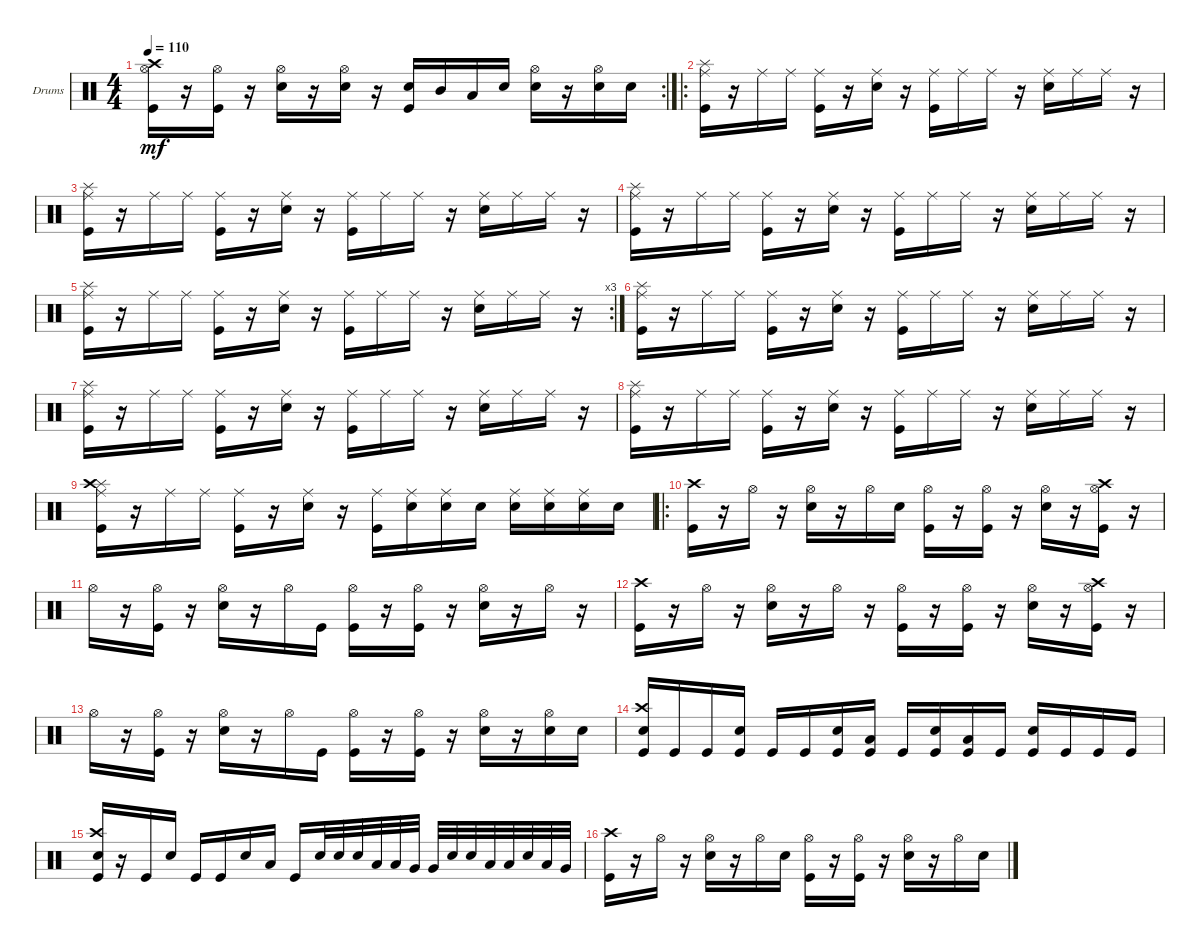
\defaultSystemsLayout 4
\bracketExtendMode groupsimilarinstruments
\firstSystemTrackNameOrientation horizontal
\otherSystemsTrackNameOrientation horizontal
\track ("Drumkit" "Drums") {instrument percussion}
\staff {score}
\articulation defaults
\rc 2
\ts (4 4)
\tempo 110
\clef neutral
\scale
0.356322
\ks c
("Hi-Hat (open)" "Kick (hit)" "Crash high (hit)").16{dy mf} r.16 ("Hi-Hat (open)" "Kick (hit)").16 r.16 ("Snare (hit) 2" "Hi-Hat (open)").16 r.16 ("Hi-Hat (open)" "Snare (hit) 2").16 r.16 ("Snare (hit) 2" "Kick (hit)").16 "Mid Tom (hit)".16 "Low Tom (hit)".16 "Snare (hit) 2".16 ("Hi-Hat (open)" "Snare (hit) 2").16 r.16 ("Hi-Hat (open)" "Snare (hit) 2").16 "Snare (hit) 2".16 |
\ro
\scale
0.377778 ("Kick (hit)" "Ride (middle)" "Splash (hit)").16 r.16 "Ride (middle)".16 "Ride (middle)".16 ("Ride (middle)" "Kick (hit)").16 r.16 ("Ride (middle)" "Snare (hit) 2").16 r.16 ("Ride (middle)" "Kick (hit)").16 "Ride (middle)".16 "Ride (middle)".16 r.16 ("Ride (middle)" "Snare (hit) 2").16 "Ride (middle)".16 "Ride (middle)".16 r.16 |
\scale
0.311111 ("Kick (hit)" "Ride (middle)" "Splash (hit)").16 r.16 "Ride (middle)".16 "Ride (middle)".16 ("Ride (middle)" "Kick (hit)").16 r.16 ("Ride (middle)" "Snare (hit) 2").16 r.16 ("Ride (middle)" "Kick (hit)").16 "Ride (middle)".16 "Ride (middle)".16 r.16 ("Ride (middle)" "Snare (hit) 2").16 "Ride (middle)".16 "Ride (middle)".16 r.16 |
\scale
0.311111 ("Kick (hit)" "Ride (middle)" "Splash (hit)").16 r.16 "Ride (middle)".16 "Ride (middle)".16 ("Ride (middle)" "Kick (hit)").16 r.16 ("Ride (middle)" "Snare (hit) 2").16 r.16 ("Ride (middle)" "Kick (hit)").16 "Ride (middle)".16 "Ride (middle)".16 r.16 ("Ride (middle)" "Snare (hit) 2").16 "Ride (middle)".16 "Ride (middle)".16 r.16 |
\rc 3
\scale
0.356322 ("Kick (hit)" "Ride (middle)" "Splash (hit)").16 r.16 "Ride (middle)".16 "Ride (middle)".16 ("Ride (middle)" "Kick (hit)").16 r.16 ("Ride (middle)" "Snare (hit) 2").16 r.16 ("Ride (middle)" "Kick (hit)").16 "Ride (middle)".16 "Ride (middle)".16 r.16 ("Ride (middle)" "Snare (hit) 2").16 "Ride (middle)".16 "Ride (middle)".16 r.16 |
\scale
0.321839 ("Kick (hit)" "Ride (middle)" "Splash (hit)").16 r.16 "Ride (middle)".16 "Ride (middle)".16 ("Ride (middle)" "Kick (hit)").16 r.16 ("Ride (middle)" "Snare (hit) 2").16 r.16 ("Ride (middle)" "Kick (hit)").16 "Ride (middle)".16 "Ride (middle)".16 r.16 ("Ride (middle)" "Snare (hit) 2").16 "Ride (middle)".16 "Ride (middle)".16 r.16 |
\scale
0.321839 ("Kick (hit)" "Ride (middle)" "Splash (hit)").16 r.16 "Ride (middle)".16 "Ride (middle)".16 ("Ride (middle)" "Kick (hit)").16 r.16 ("Ride (middle)" "Snare (hit) 2").16 r.16 ("Ride (middle)" "Kick (hit)").16 "Ride (middle)".16 "Ride (middle)".16 r.16 ("Ride (middle)" "Snare (hit) 2").16 "Ride (middle)".16 "Ride (middle)".16 r.16 |
\scale
0.311111 ("Kick (hit)" "Ride (middle)" "Splash (hit)").16 r.16 "Ride (middle)".16 "Ride (middle)".16 ("Ride (middle)" "Kick (hit)").16 r.16 ("Ride (middle)" "Snare (hit) 2").16 r.16 ("Ride (middle)" "Kick (hit)").16 "Ride (middle)".16 "Ride (middle)".16 r.16 ("Ride (middle)" "Snare (hit) 2").16 "Ride (middle)".16 "Ride (middle)".16 r.16 |
\scale
0.311111 ("Kick (hit)" "Ride (middle)" "Splash (hit)" "Crash high (hit)").16 r.16 "Ride (middle)".16 "Ride (middle)".16 ("Ride (middle)" "Kick (hit)").16 r.16 ("Ride (middle)" "Snare (hit) 2").16 r.16 ("Ride (middle)" "Kick (hit)").16 ("Ride (middle)" "Snare (hit) 2").16 ("Ride (middle)" "Snare (hit) 2").16 "Snare (hit) 2".16 ("Ride (middle)" "Snare (hit) 2").16 ("Ride (middle)" "Snare (hit) 2").16 ("Ride (middle)" "Snare (hit) 2").16 "Snare (hit) 2".16 |
\ro
\scale
0.377778 ("Kick (hit)" "Crash high (hit)").16 r.16 "Hi-Hat (open)".16 r.16 ("Hi-Hat (open)" "Snare (hit) 2").16 r.16 "Hi-Hat (open)".16 "Snare (hit) 2".16 ("Hi-Hat (open)" "Kick (hit)").16 r.16 ("Hi-Hat (open)" "Kick (hit)").16 r.16 ("Hi-Hat (open)" "Snare (hit) 2").16 r.16 ("Hi-Hat (open)" "Kick (hit)" "Crash high (hit)").16 r.16 |
\scale
0.333333 "Hi-Hat (open)".16 r.16 ("Hi-Hat (open)" "Kick (hit)").16 r.16 ("Snare (hit) 2" "Hi-Hat (open)").16 r.16 "Hi-Hat (open)".16 "Kick (hit)".16 ("Hi-Hat (open)" "Kick (hit)").16 r.16 ("Hi-Hat (open)" "Kick (hit)").16 r.16 ("Hi-Hat (open)" "Snare (hit) 2").16 r.16 "Hi-Hat (open)".16 r.16 |
\scale
0.333333 ("Kick (hit)" "Crash high (hit)").16 r.16 "Hi-Hat (open)".16 r.16 ("Hi-Hat (open)" "Snare (hit) 2").16 r.16 "Hi-Hat (open)".16 r.16 ("Hi-Hat (open)" "Kick (hit)").16 r.16 ("Hi-Hat (open)" "Kick (hit)").16 r.16 ("Hi-Hat (open)" "Snare (hit) 2").16 r.16 ("Hi-Hat (open)" "Kick (hit)" "Crash high (hit)").16 r.16 |
\scale
0.333333 "Hi-Hat (open)".16 r.16 ("Hi-Hat (open)" "Kick (hit)").16 r.16 ("Snare (hit) 2" "Hi-Hat (open)").16 r.16 "Hi-Hat (open)".16 "Kick (hit)".16 ("Hi-Hat (open)" "Kick (hit)").16 r.16 ("Hi-Hat (open)" "Kick (hit)").16 r.16 ("Hi-Hat (open)" "Snare (hit) 2").16 r.16 ("Hi-Hat (open)" "Snare (hit) 2").16 "Snare (hit) 2".16 |
\scale
0.333333 ("Snare (hit) 2" "Kick (hit)" "Crash high (hit)").16 "Kick (hit)".16 "Kick (hit)".16 ("Snare (hit) 2" "Kick (hit)").16 "Kick (hit)".16 "Kick (hit)".16 ("Snare (hit) 2" "Kick (hit)").16 ("Low Tom (hit)" "Kick (hit)").16 "Kick (hit)".16 ("Snare (hit) 2" "Kick (hit)").16 ("Low Tom (hit)" "Kick (hit)").16 "Kick (hit)".16 ("Snare (hit) 2" "Kick (hit)").16 "Kick (hit)".16 "Kick (hit)".16 "Kick (hit)".16 |
\scale
0.333333 ("Snare (hit) 2" "Kick (hit)" "Crash high (hit)").16 r.16 "Kick (hit)".16 "Snare (hit) 2".16 "Kick (hit)".16 "Kick (hit)".16 "Snare (hit) 2".16 "Low Tom (hit)".16 "Kick (hit)".16 "Snare (hit) 2".32 "Snare (hit) 2".32 "Snare (hit) 2".32 "Low Tom (hit)".32 "Low Tom (hit)".32 "Very Low Tom (hit)".32 "Very Low Tom (hit)".32 "Snare (hit) 2".32 "Snare (hit) 2".32 "Low Tom (hit)".32 "Low Tom (hit)".32 "Snare (hit) 2".32 "Low Tom (hit)".32 "Very Low Tom (hit)".32 |
\scale
0.333333 ("Kick (hit)" "Crash high (hit)").16 r.16 "Hi-Hat (open)".16 r.16 ("Hi-Hat (open)" "Snare (hit) 2").16 r.16 "Hi-Hat (open)".16 "Snare (hit) 2".16 ("Hi-Hat (open)" "Kick (hit)").16 r.16 ("Hi-Hat (open)" "Kick (hit)").16 r.16 ("Hi-Hat (open)" "Snare (hit) 2").16 r.16 "Hi-Hat (open)".16 "Snare (hit) 2".16
